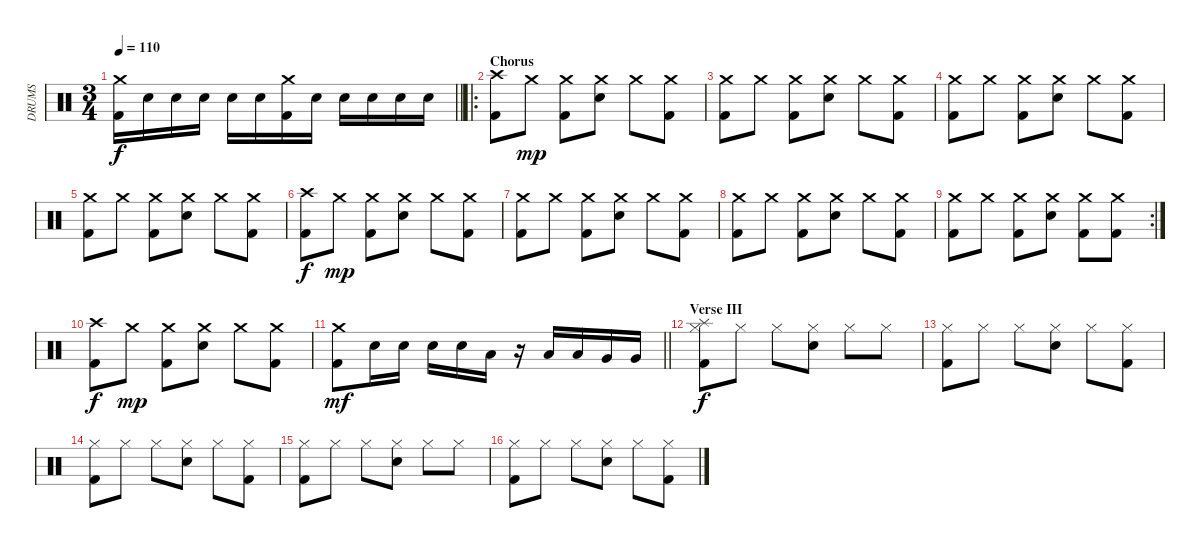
\track ("DRUMS" "DRUMS") {instrument percussion}
\staff {score}
\articulation defaults
\ts (3 4)
\tempo 110
\clef neutral
\barLineRight lightlight
\ks c
("Crash medium (hit)" "Kick (hit) 2").16{dy f} "Snare (hit) 2".16 "Snare (hit) 2".16 "Snare (hit) 2".16 "Snare (hit) 2".16 "Snare (hit) 2".16 ("Crash medium (hit)" "Kick (hit) 2").16 "Snare (hit) 2".16 "Snare (hit) 2".16 "Snare (hit) 2".16 "Snare (hit) 2".16 "Snare (hit) 2".16 |
\ro
\section ("" "Chorus")
("Crash high (hit)" "Kick (hit) 2").8 "Crash medium (hit)".8{dy mp} ("Crash medium (hit)" "Kick (hit) 2").8 ("Crash medium (hit)" "Snare (hit) 2").8 "Crash medium (hit)".8 ("Crash medium (hit)" "Kick (hit) 2").8 |
("Crash medium (hit)" "Kick (hit) 2").8 "Crash medium (hit)".8 ("Crash medium (hit)" "Kick (hit) 2").8 ("Crash medium (hit)" "Snare (hit) 2").8 "Crash medium (hit)".8 ("Crash medium (hit)" "Kick (hit) 2").8 |
("Crash medium (hit)" "Kick (hit) 2").8 "Crash medium (hit)".8 ("Crash medium (hit)" "Kick (hit) 2").8 ("Crash medium (hit)" "Snare (hit) 2").8 "Crash medium (hit)".8 ("Crash medium (hit)" "Kick (hit) 2").8 |
("Crash medium (hit)" "Kick (hit) 2").8 "Crash medium (hit)".8 ("Crash medium (hit)" "Kick (hit) 2").8 ("Crash medium (hit)" "Snare (hit) 2").8 "Crash medium (hit)".8 ("Crash medium (hit)" "Kick (hit) 2").8 |
("Crash high (hit)" "Kick (hit) 2").8{dy f} "Crash medium (hit)".8{dy mp} ("Crash medium (hit)" "Kick (hit) 2").8 ("Crash medium (hit)" "Snare (hit) 2").8 "Crash medium (hit)".8 ("Crash medium (hit)" "Kick (hit) 2").8 |
("Crash medium (hit)" "Kick (hit) 2").8 "Crash medium (hit)".8 ("Crash medium (hit)" "Kick (hit) 2").8 ("Crash medium (hit)" "Snare (hit) 2").8 "Crash medium (hit)".8 ("Crash medium (hit)" "Kick (hit) 2").8 |
("Crash medium (hit)" "Kick (hit) 2").8 "Crash medium (hit)".8 ("Crash medium (hit)" "Kick (hit) 2").8 ("Crash medium (hit)" "Snare (hit) 2").8 "Crash medium (hit)".8 ("Crash medium (hit)" "Kick (hit) 2").8 |
\rc 2
("Crash medium (hit)" "Kick (hit) 2").8 "Crash medium (hit)".8 ("Crash medium (hit)" "Kick (hit) 2").8 ("Crash medium (hit)" "Snare (hit) 2").8 ("Crash medium (hit)" "Kick (hit) 2").8 ("Crash medium (hit)" "Kick (hit) 2").8 |
("Crash high (hit)" "Kick (hit) 2").8{dy f} "Crash medium (hit)".8{dy mp} ("Crash medium (hit)" "Kick (hit) 2").8 ("Crash medium (hit)" "Snare (hit) 2").8 "Crash medium (hit)".8 ("Crash medium (hit)" "Kick (hit) 2").8 |
\barLineRight lightlight
("Crash medium (hit)" "Kick (hit) 2").8{dy mf} "Snare (hit) 2".16 "Snare (hit) 2".16 "Snare (hit) 2".16 "Snare (hit) 2".16 "Low Tom (hit)".16 r.16 "Low Tom (hit)".16 "Low Tom (hit)".16 "Very Low Tom (hit)".16 "Very Low Tom (hit)".16 |
\section ("" "Verse III")
("Kick (hit) 2" "Hi-Hat (closed)" "Splash (hit)").8{dy f} "Hi-Hat (closed)".8 "Hi-Hat (closed)".8 ("Electric Snare (hit)" "Hi-Hat (closed)").8 "Hi-Hat (closed)".8 "Hi-Hat (closed)".8 |
("Kick (hit) 2" "Hi-Hat (closed)").8 "Hi-Hat (closed)".8 "Hi-Hat (closed)".8 ("Electric Snare (hit)" "Hi-Hat (closed)").8 "Hi-Hat (closed)".8 ("Kick (hit) 2" "Hi-Hat (closed)").8 |
("Kick (hit) 2" "Hi-Hat (closed)").8 "Hi-Hat (closed)".8 "Hi-Hat (closed)".8 ("Electric Snare (hit)" "Hi-Hat (closed)").8 "Hi-Hat (closed)".8 ("Kick (hit) 2" "Hi-Hat (closed)").8 |
("Kick (hit) 2" "Hi-Hat (closed)").8 "Hi-Hat (closed)".8 "Hi-Hat (closed)".8 ("Electric Snare (hit)" "Hi-Hat (closed)").8 "Hi-Hat (closed)".8 "Hi-Hat (closed)".8 |
("Kick (hit) 2" "Hi-Hat (closed)").8 "Hi-Hat (closed)".8 "Hi-Hat (closed)".8 ("Electric Snare (hit)" "Hi-Hat (closed)").8 "Hi-Hat (closed)".8 ("Kick (hit) 2" "Hi-Hat (closed)").8
